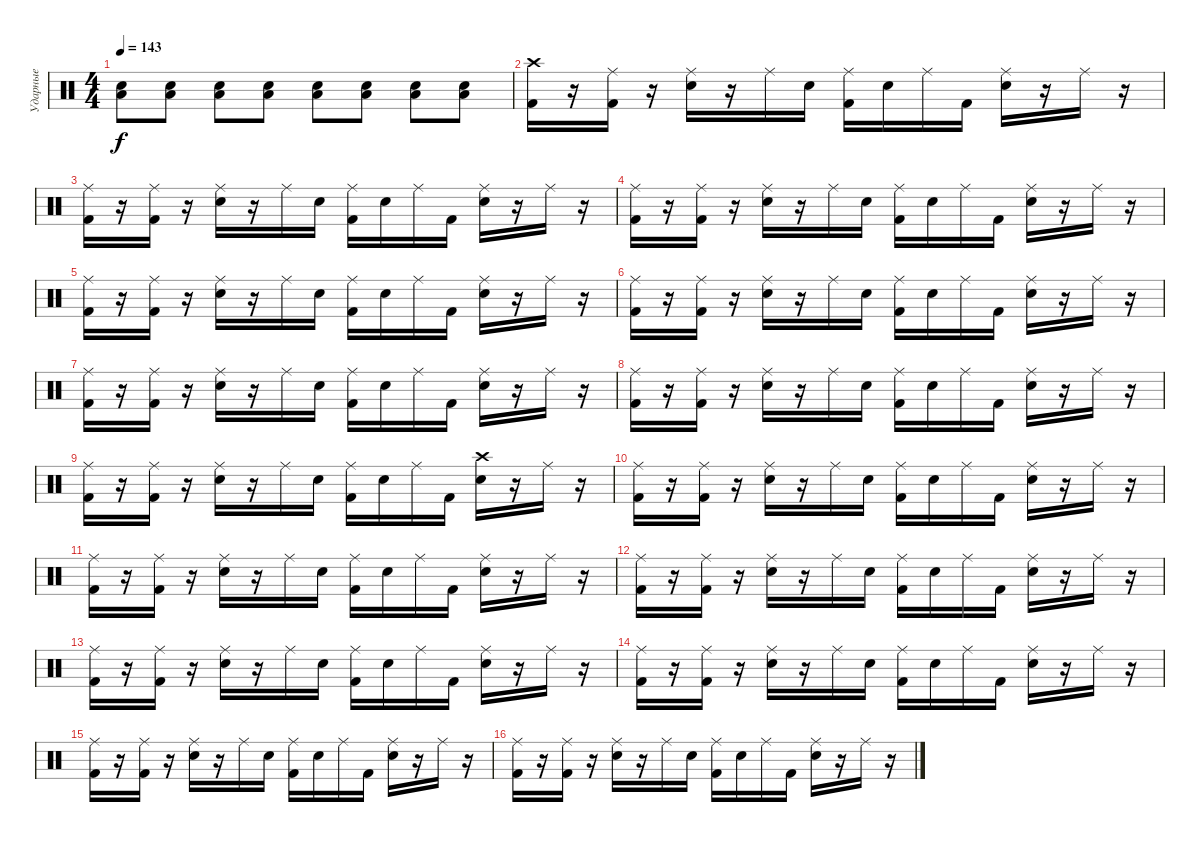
\track ("Ударные" "Ударные") {instrument percussion}
\staff {score}
\articulation defaults
\ts (4 4)
\tempo 143
\clef neutral
\ks c
("Low Tom (hit)" "Electric Snare (hit)").8{dy f} ("Low Tom (hit)" "Electric Snare (hit)").8 ("Low Tom (hit)" "Electric Snare (hit)").8 ("Low Tom (hit)" "Electric Snare (hit)").8 ("Low Tom (hit)" "Electric Snare (hit)").8 ("Low Tom (hit)" "Electric Snare (hit)").8 ("Low Tom (hit)" "Electric Snare (hit)").8 ("Low Tom (hit)" "Electric Snare (hit)").8 |
("Kick (hit) 2" "Crash high (hit)").16 r.16 ("Kick (hit) 2" "Ride (middle)").16 r.16 ("Electric Snare (hit)" "Ride (middle)").16 r.16 "Ride (middle)".16 "Electric Snare (hit)".16 ("Kick (hit) 2" "Ride (middle)").16 "Electric Snare (hit)".16 "Ride (middle)".16 "Kick (hit) 2".16 ("Electric Snare (hit)" "Ride (middle)").16 r.16 "Ride (middle)".16 r.16 |
("Kick (hit) 2" "Ride (middle)").16 r.16 ("Kick (hit) 2" "Ride (middle)").16 r.16 ("Electric Snare (hit)" "Ride (middle)").16 r.16 "Ride (middle)".16 "Electric Snare (hit)".16 ("Kick (hit) 2" "Ride (middle)").16 "Electric Snare (hit)".16 "Ride (middle)".16 "Kick (hit) 2".16 ("Electric Snare (hit)" "Ride (middle)").16 r.16 "Ride (middle)".16 r.16 |
("Kick (hit) 2" "Ride (middle)").16 r.16 ("Kick (hit) 2" "Ride (middle)").16 r.16 ("Electric Snare (hit)" "Ride (middle)").16 r.16 "Ride (middle)".16 "Electric Snare (hit)".16 ("Kick (hit) 2" "Ride (middle)").16 "Electric Snare (hit)".16 "Ride (middle)".16 "Kick (hit) 2".16 ("Electric Snare (hit)" "Ride (middle)").16 r.16 "Ride (middle)".16 r.16 |
("Kick (hit) 2" "Ride (middle)").16 r.16 ("Kick (hit) 2" "Ride (middle)").16 r.16 ("Electric Snare (hit)" "Ride (middle)").16 r.16 "Ride (middle)".16 "Electric Snare (hit)".16 ("Kick (hit) 2" "Ride (middle)").16 "Electric Snare (hit)".16 "Ride (middle)".16 "Kick (hit) 2".16 ("Electric Snare (hit)" "Ride (middle)").16 r.16 "Ride (middle)".16 r.16 |
("Kick (hit) 2" "Ride (middle)").16 r.16 ("Kick (hit) 2" "Ride (middle)").16 r.16 ("Electric Snare (hit)" "Ride (middle)").16 r.16 "Ride (middle)".16 "Electric Snare (hit)".16 ("Kick (hit) 2" "Ride (middle)").16 "Electric Snare (hit)".16 "Ride (middle)".16 "Kick (hit) 2".16 ("Electric Snare (hit)" "Ride (middle)").16 r.16 "Ride (middle)".16 r.16 |
("Kick (hit) 2" "Ride (middle)").16 r.16 ("Kick (hit) 2" "Ride (middle)").16 r.16 ("Electric Snare (hit)" "Ride (middle)").16 r.16 "Ride (middle)".16 "Electric Snare (hit)".16 ("Kick (hit) 2" "Ride (middle)").16 "Electric Snare (hit)".16 "Ride (middle)".16 "Kick (hit) 2".16 ("Electric Snare (hit)" "Ride (middle)").16 r.16 "Ride (middle)".16 r.16 |
("Kick (hit) 2" "Ride (middle)").16 r.16 ("Kick (hit) 2" "Ride (middle)").16 r.16 ("Electric Snare (hit)" "Ride (middle)").16 r.16 "Ride (middle)".16 "Electric Snare (hit)".16 ("Kick (hit) 2" "Ride (middle)").16 "Electric Snare (hit)".16 "Ride (middle)".16 "Kick (hit) 2".16 ("Electric Snare (hit)" "Ride (middle)").16 r.16 "Ride (middle)".16 r.16 |
("Kick (hit) 2" "Ride (middle)").16 r.16 ("Kick (hit) 2" "Ride (middle)").16 r.16 ("Electric Snare (hit)" "Ride (middle)").16 r.16 "Ride (middle)".16 "Electric Snare (hit)".16 ("Kick (hit) 2" "Ride (middle)").16 "Electric Snare (hit)".16 "Ride (middle)".16 "Kick (hit) 2".16 ("Electric Snare (hit)" "Crash high (hit)").16 r.16 "Ride (middle)".16 r.16 |
("Kick (hit) 2" "Ride (middle)").16 r.16 ("Kick (hit) 2" "Ride (middle)").16 r.16 ("Electric Snare (hit)" "Ride (middle)").16 r.16 "Ride (middle)".16 "Electric Snare (hit)".16 ("Kick (hit) 2" "Ride (middle)").16 "Electric Snare (hit)".16 "Ride (middle)".16 "Kick (hit) 2".16 ("Electric Snare (hit)" "Ride (middle)").16 r.16 "Ride (middle)".16 r.16 |
("Kick (hit) 2" "Ride (middle)").16 r.16 ("Kick (hit) 2" "Ride (middle)").16 r.16 ("Electric Snare (hit)" "Ride (middle)").16 r.16 "Ride (middle)".16 "Electric Snare (hit)".16 ("Kick (hit) 2" "Ride (middle)").16 "Electric Snare (hit)".16 "Ride (middle)".16 "Kick (hit) 2".16 ("Electric Snare (hit)" "Ride (middle)").16 r.16 "Ride (middle)".16 r.16 |
("Kick (hit) 2" "Ride (middle)").16 r.16 ("Kick (hit) 2" "Ride (middle)").16 r.16 ("Electric Snare (hit)" "Ride (middle)").16 r.16 "Ride (middle)".16 "Electric Snare (hit)".16 ("Kick (hit) 2" "Ride (middle)").16 "Electric Snare (hit)".16 "Ride (middle)".16 "Kick (hit) 2".16 ("Electric Snare (hit)" "Ride (middle)").16 r.16 "Ride (middle)".16 r.16 |
("Kick (hit) 2" "Ride (middle)").16 r.16 ("Kick (hit) 2" "Ride (middle)").16 r.16 ("Electric Snare (hit)" "Ride (middle)").16 r.16 "Ride (middle)".16 "Electric Snare (hit)".16 ("Kick (hit) 2" "Ride (middle)").16 "Electric Snare (hit)".16 "Ride (middle)".16 "Kick (hit) 2".16 ("Electric Snare (hit)" "Ride (middle)").16 r.16 "Ride (middle)".16 r.16 |
("Kick (hit) 2" "Ride (middle)").16 r.16 ("Kick (hit) 2" "Ride (middle)").16 r.16 ("Electric Snare (hit)" "Ride (middle)").16 r.16 "Ride (middle)".16 "Electric Snare (hit)".16 ("Kick (hit) 2" "Ride (middle)").16 "Electric Snare (hit)".16 "Ride (middle)".16 "Kick (hit) 2".16 ("Electric Snare (hit)" "Ride (middle)").16 r.16 "Ride (middle)".16 r.16 |
("Kick (hit) 2" "Ride (middle)").16 r.16 ("Kick (hit) 2" "Ride (middle)").16 r.16 ("Electric Snare (hit)" "Ride (middle)").16 r.16 "Ride (middle)".16 "Electric Snare (hit)".16 ("Kick (hit) 2" "Ride (middle)").16 "Electric Snare (hit)".16 "Ride (middle)".16 "Kick (hit) 2".16 ("Electric Snare (hit)" "Ride (middle)").16 r.16 "Ride (middle)".16 r.16 |
("Kick (hit) 2" "Ride (middle)").16 r.16 ("Kick (hit) 2" "Ride (middle)").16 r.16 ("Electric Snare (hit)" "Ride (middle)").16 r.16 "Ride (middle)".16 "Electric Snare (hit)".16 ("Kick (hit) 2" "Ride (middle)").16 "Electric Snare (hit)".16 "Ride (middle)".16 "Kick (hit) 2".16 ("Electric Snare (hit)" "Ride (middle)").16 r.16 "Ride (middle)".16 r.16
